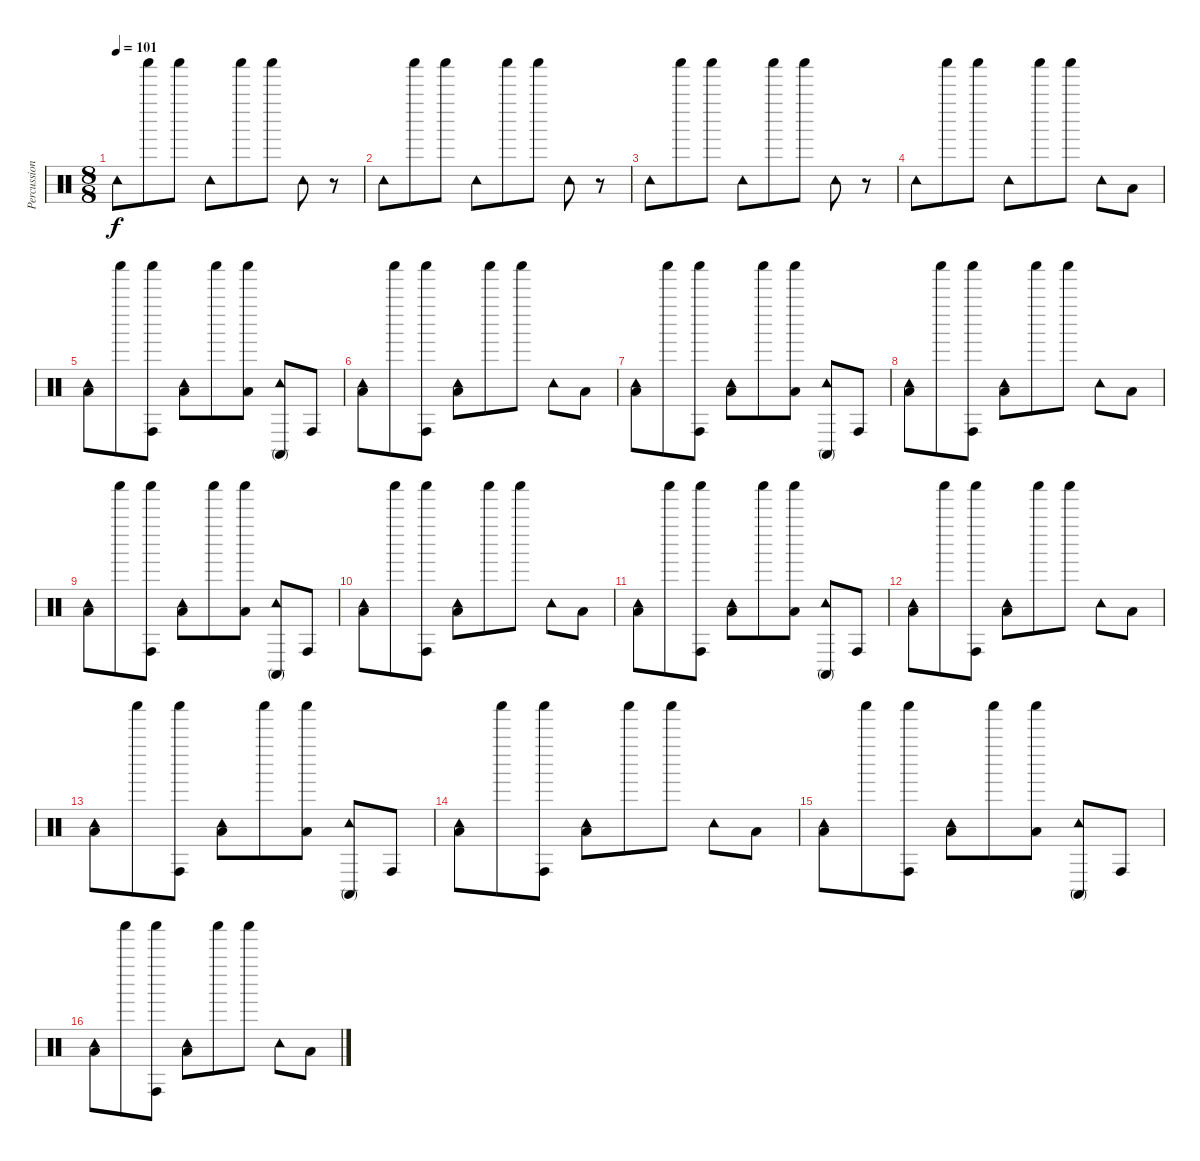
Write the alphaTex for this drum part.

\track ("Percussion" "Percussion") {instrument percussion}
\staff {score}
\articulation defaults
\ts (8 8)
\tempo 101
\clef neutral
\ks c "Tambourine (hit)".8{dy f} "Shaker (hit)".8 "Shaker (hit)".8 "Tambourine (hit)".8 "Shaker (hit)".8 "Shaker (hit)".8 "Tambourine (hit)".8
r.8 |
"Tambourine (hit)".8 "Shaker (hit)".8 "Shaker (hit)".8 "Tambourine (hit)".8 "Shaker (hit)".8 "Shaker (hit)".8 "Tambourine (hit)".8 r.8 |
"Tambourine (hit)".8 "Shaker (hit)".8 "Shaker (hit)".8 "Tambourine (hit)".8 "Shaker (hit)".8 "Shaker (hit)".8 "Tambourine (hit)".8 r.8 |
"Tambourine (hit)".8 "Shaker (hit)".8 "Shaker (hit)".8 "Tambourine (hit)".8 "Shaker (hit)".8 "Shaker (hit)".8 "Tambourine (hit)".8 "Low Floor Tom (hit)".8 |
("Tambourine (hit)" "Low Floor Tom (hit)").8 "Shaker (hit)".8 ("Shaker (hit)" "Conga high (hit)").8 ("Tambourine (hit)" "Low Floor Tom (hit)").8 "Shaker (hit)".8 ("Shaker (hit)" "Low Floor Tom (hit)").8 ("Tambourine (hit)" "Conga high (mute)").8 "Conga high (hit)".8 |
("Tambourine (hit)" "Low Floor Tom (hit)").8 "Shaker (hit)".8 ("Shaker (hit)" "Conga high (hit)").8 ("Tambourine (hit)" "Low Floor Tom (hit)").8 "Shaker (hit)".8 "Shaker (hit)".8 "Tambourine (hit)".8 "Low Floor Tom (hit)".8 |
("Tambourine (hit)" "Low Floor Tom (hit)").8 "Shaker (hit)".8 ("Shaker (hit)" "Conga high (hit)").8 ("Tambourine (hit)" "Low Floor Tom (hit)").8 "Shaker (hit)".8 ("Shaker (hit)" "Low Floor Tom (hit)").8 ("Tambourine (hit)" "Conga high (mute)").8 "Conga high (hit)".8 |
("Tambourine (hit)" "Low Floor Tom (hit)").8 "Shaker (hit)".8 ("Shaker (hit)" "Conga high (hit)").8 ("Tambourine (hit)" "Low Floor Tom (hit)").8 "Shaker (hit)".8 "Shaker (hit)".8 "Tambourine (hit)".8 "Low Floor Tom (hit)".8 |
("Tambourine (hit)" "Low Floor Tom (hit)").8 "Shaker (hit)".8 ("Shaker (hit)" "Conga high (hit)").8 ("Tambourine (hit)" "Low Floor Tom (hit)").8 "Shaker (hit)".8 ("Shaker (hit)" "Low Floor Tom (hit)").8 ("Tambourine (hit)" "Conga high (mute)").8 "Conga high (hit)".8 |
("Tambourine (hit)" "Low Floor Tom (hit)").8 "Shaker (hit)".8 ("Shaker (hit)" "Conga high (hit)").8 ("Tambourine (hit)" "Low Floor Tom (hit)").8 "Shaker (hit)".8 "Shaker (hit)".8 "Tambourine (hit)".8 "Low Floor Tom (hit)".8 |
("Tambourine (hit)" "Low Floor Tom (hit)").8 "Shaker (hit)".8 ("Shaker (hit)" "Conga high (hit)").8 ("Tambourine (hit)" "Low Floor Tom (hit)").8 "Shaker (hit)".8 ("Shaker (hit)" "Low Floor Tom (hit)").8 ("Tambourine (hit)" "Conga high (mute)").8 "Conga high (hit)".8 |
("Tambourine (hit)" "Low Floor Tom (hit)").8 "Shaker (hit)".8 ("Shaker (hit)" "Conga high (hit)").8 ("Tambourine (hit)" "Low Floor Tom (hit)").8 "Shaker (hit)".8 "Shaker (hit)".8 "Tambourine (hit)".8 "Low Floor Tom (hit)".8 |
("Tambourine (hit)" "Low Floor Tom (hit)").8 "Shaker (hit)".8 ("Shaker (hit)" "Conga high (hit)").8 ("Tambourine (hit)" "Low Floor Tom (hit)").8 "Shaker (hit)".8 ("Shaker (hit)" "Low Floor Tom (hit)").8 ("Tambourine (hit)" "Conga high (mute)").8 "Conga high (hit)".8 |
("Tambourine (hit)" "Low Floor Tom (hit)").8 "Shaker (hit)".8 ("Shaker (hit)" "Conga high (hit)").8 ("Tambourine (hit)" "Low Floor Tom (hit)").8 "Shaker (hit)".8 "Shaker (hit)".8 "Tambourine (hit)".8 "Low Floor Tom (hit)".8 |
("Tambourine (hit)" "Low Floor Tom (hit)").8 "Shaker (hit)".8 ("Shaker (hit)" "Conga high (hit)").8 ("Tambourine (hit)" "Low Floor Tom (hit)").8 "Shaker (hit)".8 ("Shaker (hit)" "Low Floor Tom (hit)").8 ("Tambourine (hit)" "Conga high (mute)").8 "Conga high (hit)".8 |
("Tambourine (hit)" "Low Floor Tom (hit)").8 "Shaker (hit)".8 ("Shaker (hit)" "Conga high (hit)").8 ("Tambourine (hit)" "Low Floor Tom (hit)").8 "Shaker (hit)".8 "Shaker (hit)".8 "Tambourine (hit)".8 "Low Floor Tom (hit)".8
